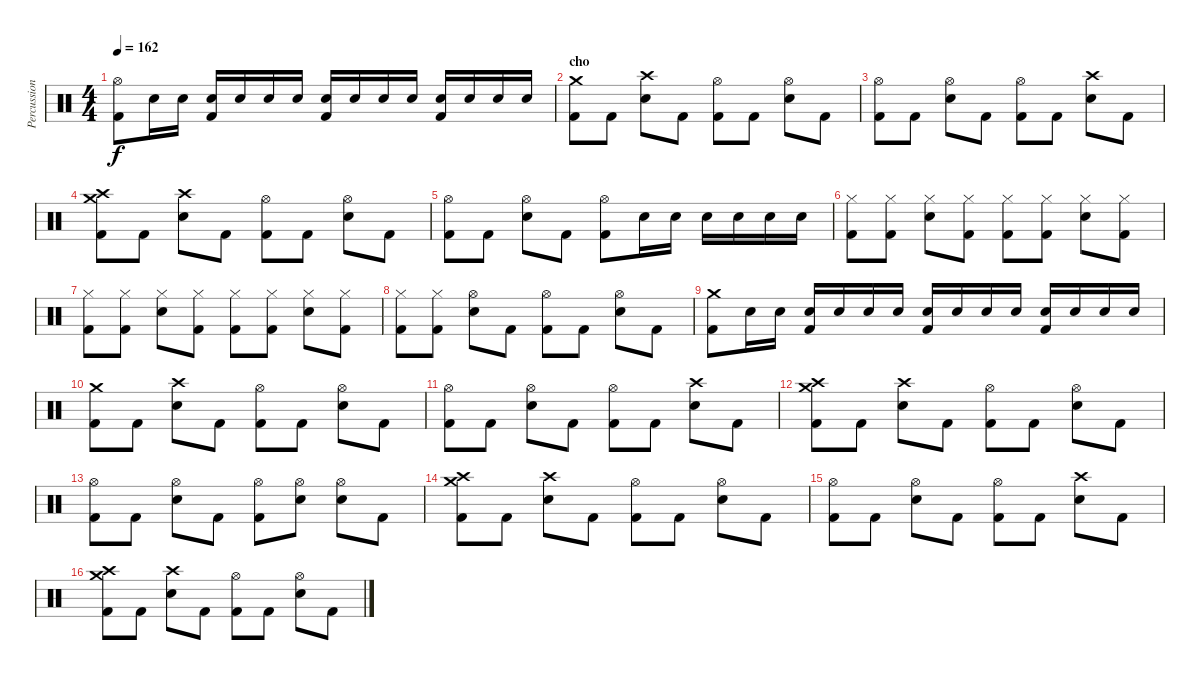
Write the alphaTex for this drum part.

\track ("Percussion" "Percussion") {instrument percussion}
\staff {score}
\articulation defaults
\ts (4 4)
\tempo 162
\clef neutral
\ks c
("Kick (hit) 2" "Hi-Hat (open)").8{dy f} "Snare (hit) 2".16 "Snare (hit) 2".16 ("Kick (hit) 2" "Snare (hit) 2").16 "Snare (hit) 2".16 "Snare (hit) 2".16 "Snare (hit) 2".16 ("Kick (hit) 2" "Snare (hit) 2").16 "Snare (hit) 2".16 "Snare (hit) 2".16 "Snare (hit) 2".16 ("Kick (hit) 2" "Snare (hit) 2").16 "Snare (hit) 2".16 "Snare (hit) 2".16 "Snare (hit) 2".16 |
\section ("" "cho")
("Kick (hit) 2" "Crash medium (hit)").8 "Kick (hit) 2".8 ("Snare (hit) 2" "Crash high (hit)").8 "Kick (hit) 2".8 ("Kick (hit) 2" "Hi-Hat (open)").8 "Kick (hit) 2".8 ("Snare (hit) 2" "Hi-Hat (open)").8 "Kick (hit) 2".8 |
("Kick (hit) 2" "Hi-Hat (open)").8 "Kick (hit) 2".8 ("Snare (hit) 2" "Hi-Hat (open)").8 "Kick (hit) 2".8 ("Kick (hit) 2" "Hi-Hat (open)").8 "Kick (hit) 2".8 ("Snare (hit) 2" "Crash high (hit)").8 "Kick (hit) 2".8 |
("Kick (hit) 2" "Crash medium (hit)" "Crash high (hit)").8 "Kick (hit) 2".8 ("Snare (hit) 2" "Crash high (hit)").8 "Kick (hit) 2".8 ("Kick (hit) 2" "Hi-Hat (open)").8 "Kick (hit) 2".8 ("Snare (hit) 2" "Hi-Hat (open)").8 "Kick (hit) 2".8 |
("Kick (hit) 2" "Hi-Hat (open)").8 "Kick (hit) 2".8 ("Snare (hit) 2" "Hi-Hat (open)").8 "Kick (hit) 2".8 ("Kick (hit) 2" "Hi-Hat (open)").8 "Snare (hit) 2".16 "Snare (hit) 2".16 "Snare (hit) 2".16 "Snare (hit) 2".16 "Snare (hit) 2".16 "Snare (hit) 2".16 |
("Kick (hit) 2" "Hi-Hat (closed)").8 ("Kick (hit) 2" "Hi-Hat (closed)").8 ("Snare (hit) 2" "Hi-Hat (closed)").8 ("Kick (hit) 2" "Hi-Hat (closed)").8 ("Kick (hit) 2" "Hi-Hat (closed)").8 ("Kick (hit) 2" "Hi-Hat (closed)").8 ("Snare (hit) 2" "Hi-Hat (closed)").8 ("Kick (hit) 2" "Hi-Hat (closed)").8 |
("Kick (hit) 2" "Hi-Hat (closed)").8 ("Kick (hit) 2" "Hi-Hat (closed)").8 ("Snare (hit) 2" "Hi-Hat (closed)").8 ("Kick (hit) 2" "Hi-Hat (closed)").8 ("Kick (hit) 2" "Hi-Hat (closed)").8 ("Kick (hit) 2" "Hi-Hat (closed)").8 ("Snare (hit) 2" "Hi-Hat (closed)").8 ("Kick (hit) 2" "Hi-Hat (closed)").8 |
("Kick (hit) 2" "Hi-Hat (closed)").8 ("Kick (hit) 2" "Hi-Hat (closed)").8 ("Snare (hit) 2" "Hi-Hat (open)").8 "Kick (hit) 2".8 ("Kick (hit) 2" "Hi-Hat (open)").8 "Kick (hit) 2".8 ("Snare (hit) 2" "Hi-Hat (open)").8 "Kick (hit) 2".8 |
("Kick (hit) 2" "Crash medium (hit)").8 "Snare (hit) 2".16 "Snare (hit) 2".16 ("Kick (hit) 2" "Snare (hit) 2").16 "Snare (hit) 2".16 "Snare (hit) 2".16 "Snare (hit) 2".16 ("Kick (hit) 2" "Snare (hit) 2").16 "Snare (hit) 2".16 "Snare (hit) 2".16 "Snare (hit) 2".16 ("Kick (hit) 2" "Snare (hit) 2").16 "Snare (hit) 2".16 "Snare (hit) 2".16 "Snare (hit) 2".16 |
("Kick (hit) 2" "Crash medium (hit)").8 "Kick (hit) 2".8 ("Snare (hit) 2" "Crash high (hit)").8 "Kick (hit) 2".8 ("Kick (hit) 2" "Hi-Hat (open)").8 "Kick (hit) 2".8 ("Snare (hit) 2" "Hi-Hat (open)").8 "Kick (hit) 2".8 |
("Kick (hit) 2" "Hi-Hat (open)").8 "Kick (hit) 2".8 ("Snare (hit) 2" "Hi-Hat (open)").8 "Kick (hit) 2".8 ("Kick (hit) 2" "Hi-Hat (open)").8 "Kick (hit) 2".8 ("Snare (hit) 2" "Crash high (hit)").8 "Kick (hit) 2".8 |
("Kick (hit) 2" "Crash medium (hit)" "Crash high (hit)").8 "Kick (hit) 2".8 ("Snare (hit) 2" "Crash high (hit)").8 "Kick (hit) 2".8 ("Kick (hit) 2" "Hi-Hat (open)").8 "Kick (hit) 2".8 ("Snare (hit) 2" "Hi-Hat (open)").8 "Kick (hit) 2".8 |
("Kick (hit) 2" "Hi-Hat (open)").8 "Kick (hit) 2".8 ("Snare (hit) 2" "Hi-Hat (open)").8 "Kick (hit) 2".8 ("Kick (hit) 2" "Hi-Hat (open)").8 ("Snare (hit) 2" "Hi-Hat (open)").8 ("Snare (hit) 2" "Hi-Hat (open)").8 "Kick (hit) 2".8 |
("Kick (hit) 2" "Crash medium (hit)" "Crash high (hit)").8 "Kick (hit) 2".8 ("Snare (hit) 2" "Crash high (hit)").8 "Kick (hit) 2".8 ("Kick (hit) 2" "Hi-Hat (open)").8 "Kick (hit) 2".8 ("Snare (hit) 2" "Hi-Hat (open)").8 "Kick (hit) 2".8 |
("Kick (hit) 2" "Hi-Hat (open)").8 "Kick (hit) 2".8 ("Snare (hit) 2" "Hi-Hat (open)").8 "Kick (hit) 2".8 ("Kick (hit) 2" "Hi-Hat (open)").8 "Kick (hit) 2".8 ("Snare (hit) 2" "Crash high (hit)").8 "Kick (hit) 2".8 |
("Kick (hit) 2" "Crash medium (hit)" "Crash high (hit)").8 "Kick (hit) 2".8 ("Snare (hit) 2" "Crash high (hit)").8 "Kick (hit) 2".8 ("Kick (hit) 2" "Hi-Hat (open)").8 "Kick (hit) 2".8 ("Snare (hit) 2" "Hi-Hat (open)").8 "Kick (hit) 2".8
